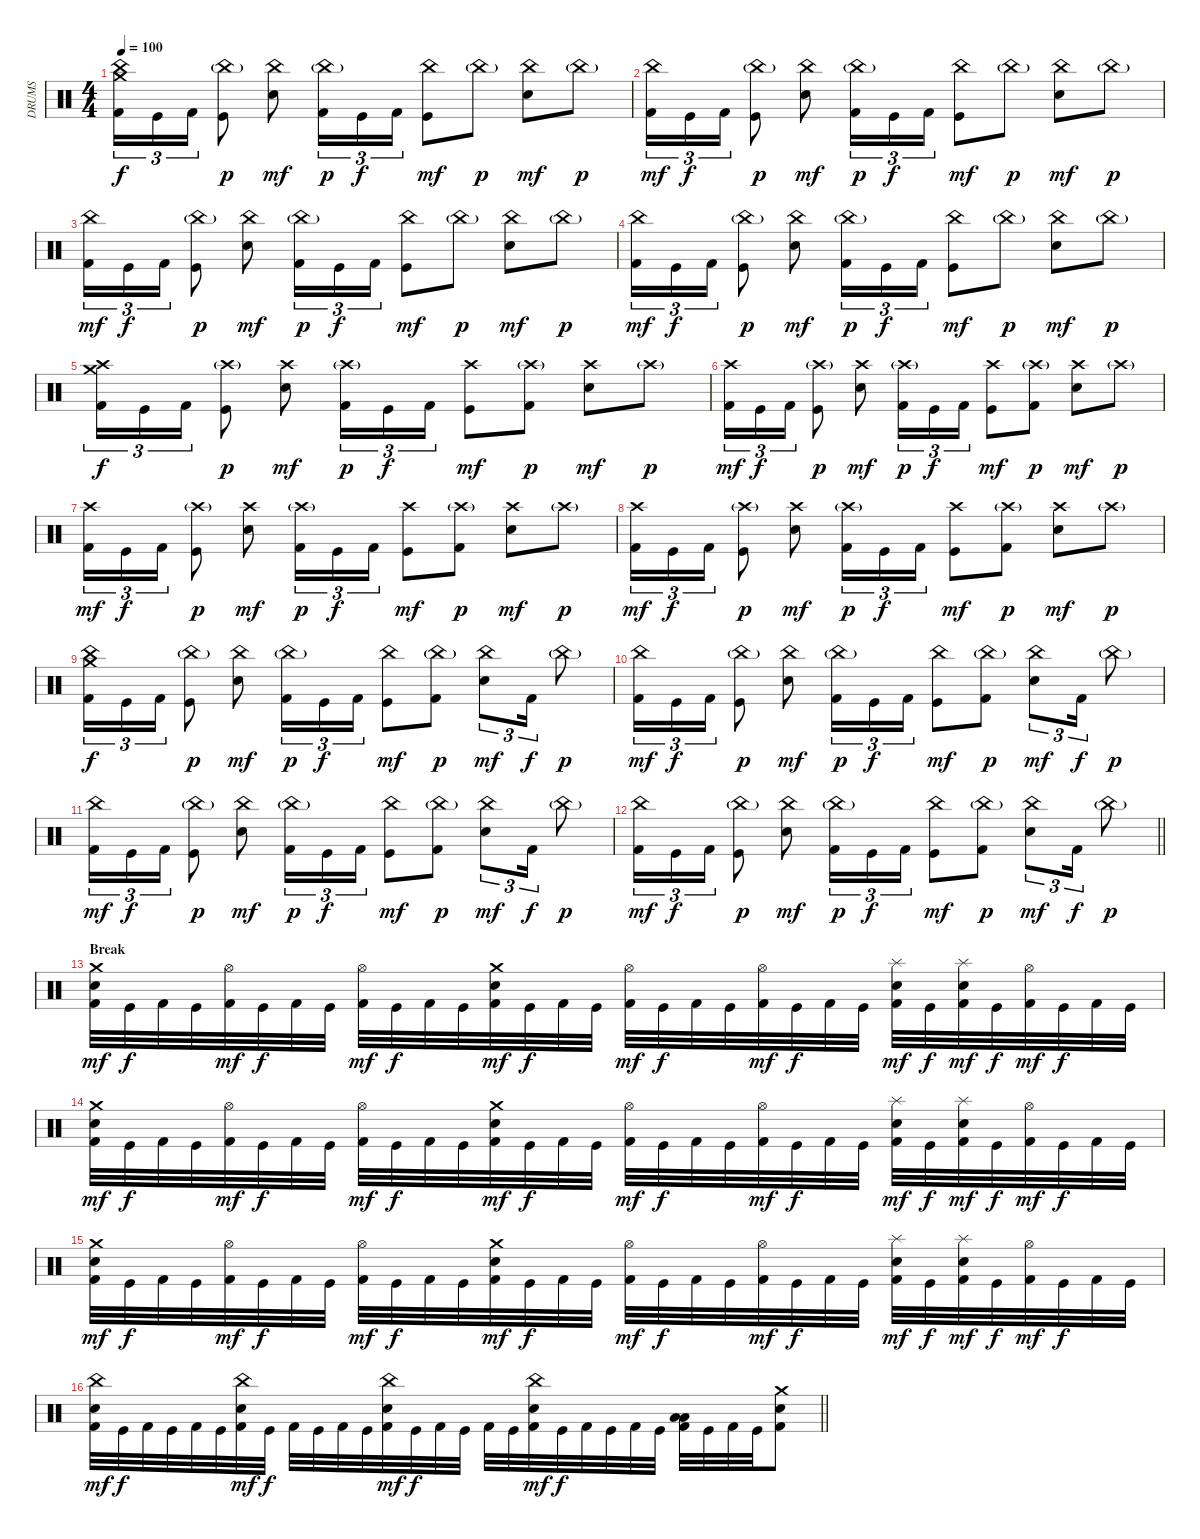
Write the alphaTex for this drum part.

\track ("DRUMS" "DRUMS") {instrument percussion}
\staff {score}
\articulation defaults
\ts (4 4)
\tempo 100
\clef neutral
\ks c
("China (hit)" "Crash medium (hit)" "Kick (hit) 2").16{tu (3 2) dy f} "Kick (hit)".16{tu (3 2)} "Kick (hit) 2".16{tu (3 2)} ("China (hit)"{g} "Kick (hit)").8{dy p} ("China (hit)" "Snare (hit) 2").8{dy mf} ("China (hit)"{g} "Kick (hit) 2").16{tu (3 2) dy p} "Kick (hit)".16{tu (3 2) dy f} "Kick (hit) 2".16{tu (3 2)} ("China (hit)" "Kick (hit)").8{dy mf} "China (hit)"{g}.8{dy p} ("China (hit)" "Snare (hit) 2").8{dy mf} "China (hit)"{g}.8{dy p} |
("China (hit)" "Kick (hit) 2").16{tu (3 2) dy mf} "Kick (hit)".16{tu (3 2) dy f} "Kick (hit) 2".16{tu (3 2)} ("China (hit)"{g} "Kick (hit)").8{dy p} ("China (hit)" "Snare (hit) 2").8{dy mf} ("China (hit)"{g} "Kick (hit) 2").16{tu (3 2) dy p} "Kick (hit)".16{tu (3 2) dy f} "Kick (hit) 2".16{tu (3 2)} ("China (hit)" "Kick (hit)").8{dy mf} "China (hit)"{g}.8{dy p} ("China (hit)" "Snare (hit) 2").8{dy mf} "China (hit)"{g}.8{dy p} |
("China (hit)" "Kick (hit) 2").16{tu (3 2) dy mf} "Kick (hit)".16{tu (3 2) dy f} "Kick (hit) 2".16{tu (3 2)} ("China (hit)"{g} "Kick (hit)").8{dy p} ("China (hit)" "Snare (hit) 2").8{dy mf} ("China (hit)"{g} "Kick (hit) 2").16{tu (3 2) dy p} "Kick (hit)".16{tu (3 2) dy f} "Kick (hit) 2".16{tu (3 2)} ("China (hit)" "Kick (hit)").8{dy mf} "China (hit)"{g}.8{dy p} ("China (hit)" "Snare (hit) 2").8{dy mf} "China (hit)"{g}.8{dy p} |
("China (hit)" "Kick (hit) 2").16{tu (3 2) dy mf} "Kick (hit)".16{tu (3 2) dy f} "Kick (hit) 2".16{tu (3 2)} ("China (hit)"{g} "Kick (hit)").8{dy p} ("China (hit)" "Snare (hit) 2").8{dy mf} ("China (hit)"{g} "Kick (hit) 2").16{tu (3 2) dy p} "Kick (hit)".16{tu (3 2) dy f} "Kick (hit) 2".16{tu (3 2)} ("China (hit)" "Kick (hit)").8{dy mf} "China (hit)"{g}.8{dy p} ("China (hit)" "Snare (hit) 2").8{dy mf} "China (hit)"{g}.8{dy p} |
("Crash high (hit)" "Crash medium (hit)" "Kick (hit) 2").16{tu (3 2) dy f} "Kick (hit)".16{tu (3 2)} "Kick (hit) 2".16{tu (3 2)} ("Crash high (hit)"{g} "Kick (hit)").8{dy p} ("Crash high (hit)" "Snare (hit) 2").8{dy mf} ("Crash high (hit)"{g} "Kick (hit) 2").16{tu (3 2) dy p} "Kick (hit)".16{tu (3 2) dy f} "Kick (hit) 2".16{tu (3 2)} ("Crash high (hit)" "Kick (hit)").8{dy mf} ("Crash high (hit)"{g} "Kick (hit) 2").8{dy p} ("Crash high (hit)" "Snare (hit) 2").8{dy mf} "Crash high (hit)"{g}.8{dy p} |
("Crash high (hit)" "Kick (hit) 2").16{tu (3 2) dy mf} "Kick (hit)".16{tu (3 2) dy f} "Kick (hit) 2".16{tu (3 2)} ("Crash high (hit)"{g} "Kick (hit)").8{dy p} ("Crash high (hit)" "Snare (hit) 2").8{dy mf} ("Crash high (hit)"{g} "Kick (hit) 2").16{tu (3 2) dy p} "Kick (hit)".16{tu (3 2) dy f} "Kick (hit) 2".16{tu (3 2)} ("Crash high (hit)" "Kick (hit)").8{dy mf} ("Crash high (hit)"{g} "Kick (hit) 2").8{dy p} ("Crash high (hit)" "Snare (hit) 2").8{dy mf} "Crash high (hit)"{g}.8{dy p} |
("Crash high (hit)" "Kick (hit) 2").16{tu (3 2) dy mf} "Kick (hit)".16{tu (3 2) dy f} "Kick (hit) 2".16{tu (3 2)} ("Crash high (hit)"{g} "Kick (hit)").8{dy p} ("Crash high (hit)" "Snare (hit) 2").8{dy mf} ("Crash high (hit)"{g} "Kick (hit) 2").16{tu (3 2) dy p} "Kick (hit)".16{tu (3 2) dy f} "Kick (hit) 2".16{tu (3 2)} ("Crash high (hit)" "Kick (hit)").8{dy mf} ("Crash high (hit)"{g} "Kick (hit) 2").8{dy p} ("Crash high (hit)" "Snare (hit) 2").8{dy mf} "Crash high (hit)"{g}.8{dy p} |
("Crash high (hit)" "Kick (hit) 2").16{tu (3 2) dy mf} "Kick (hit)".16{tu (3 2) dy f} "Kick (hit) 2".16{tu (3 2)} ("Crash high (hit)"{g} "Kick (hit)").8{dy p} ("Crash high (hit)" "Snare (hit) 2").8{dy mf} ("Crash high (hit)"{g} "Kick (hit) 2").16{tu (3 2) dy p} "Kick (hit)".16{tu (3 2) dy f} "Kick (hit) 2".16{tu (3 2)} ("Crash high (hit)" "Kick (hit)").8{dy mf} ("Crash high (hit)"{g} "Kick (hit) 2").8{dy p} ("Crash high (hit)" "Snare (hit) 2").8{dy mf} "Crash high (hit)"{g}.8{dy p} |
("China (hit)" "Crash medium (hit)" "Kick (hit) 2").16{tu (3 2) dy f} "Kick (hit)".16{tu (3 2)} "Kick (hit) 2".16{tu (3 2)} ("China (hit)"{g} "Kick (hit)").8{dy p} ("China (hit)" "Snare (hit) 2").8{dy mf} ("China (hit)"{g} "Kick (hit) 2").16{tu (3 2) dy p} "Kick (hit)".16{tu (3 2) dy f} "Kick (hit) 2".16{tu (3 2)} ("China (hit)" "Kick (hit)").8{dy mf} ("China (hit)"{g} "Kick (hit) 2").8{dy p} ("China (hit)" "Snare (hit) 2").8{tu (3 2) dy mf} "Kick (hit) 2".16{tu (3 2) dy f} "China (hit)"{g}.8{dy p} |
("China (hit)" "Kick (hit) 2").16{tu (3 2) dy mf} "Kick (hit)".16{tu (3 2) dy f} "Kick (hit) 2".16{tu (3 2)} ("China (hit)"{g} "Kick (hit)").8{dy p} ("China (hit)" "Snare (hit) 2").8{dy mf} ("China (hit)"{g} "Kick (hit) 2").16{tu (3 2) dy p} "Kick (hit)".16{tu (3 2) dy f} "Kick (hit) 2".16{tu (3 2)} ("China (hit)" "Kick (hit)").8{dy mf} ("China (hit)"{g} "Kick (hit) 2").8{dy p} ("China (hit)" "Snare (hit) 2").8{tu (3 2) dy mf} "Kick (hit) 2".16{tu (3 2) dy f} "China (hit)"{g}.8{dy p} |
("China (hit)" "Kick (hit) 2").16{tu (3 2) dy mf} "Kick (hit)".16{tu (3 2) dy f} "Kick (hit) 2".16{tu (3 2)} ("China (hit)"{g} "Kick (hit)").8{dy p} ("China (hit)" "Snare (hit) 2").8{dy mf} ("China (hit)"{g} "Kick (hit) 2").16{tu (3 2) dy p} "Kick (hit)".16{tu (3 2) dy f} "Kick (hit) 2".16{tu (3 2)} ("China (hit)" "Kick (hit)").8{dy mf} ("China (hit)"{g} "Kick (hit) 2").8{dy p} ("China (hit)" "Snare (hit) 2").8{tu (3 2) dy mf} "Kick (hit) 2".16{tu (3 2) dy f} "China (hit)"{g}.8{dy p} |
\barLineRight lightlight
("China (hit)" "Kick (hit) 2").16{tu (3 2) dy mf} "Kick (hit)".16{tu (3 2) dy f} "Kick (hit) 2".16{tu (3 2)} ("China (hit)"{g} "Kick (hit)").8{dy p} ("China (hit)" "Snare (hit) 2").8{dy mf} ("China (hit)"{g} "Kick (hit) 2").16{tu (3 2) dy p} "Kick (hit)".16{tu (3 2) dy f} "Kick (hit) 2".16{tu (3 2)} ("China (hit)" "Kick (hit)").8{dy mf} ("China (hit)"{g} "Kick (hit) 2").8{dy p} ("China (hit)" "Snare (hit) 2").8{tu (3 2) dy mf} "Kick (hit) 2".16{tu (3 2) dy f} "China (hit)"{g}.8{dy p} |
\section ("" "Break")
("Crash medium (hit)" "Snare (hit) 2" "Kick (hit) 2").32{dy mf} "Kick (hit)".32{dy f} "Kick (hit) 2".32 "Kick (hit)".32 ("Hi-Hat (open)" "Kick (hit) 2").32{dy mf} "Kick (hit)".32{dy f} "Kick (hit) 2".32 "Kick (hit)".32 ("Hi-Hat (open)" "Kick (hit) 2").32{dy mf} "Kick (hit)".32{dy f} "Kick (hit) 2".32 "Kick (hit)".32 ("Crash medium (hit)" "Snare (hit) 2" "Kick (hit) 2").32{dy mf} "Kick (hit)".32{dy f} "Kick (hit) 2".32 "Kick (hit)".32 ("Hi-Hat (open)" "Kick (hit) 2").32{dy mf} "Kick (hit)".32{dy f} "Kick (hit) 2".32 "Kick (hit)".32 ("Hi-Hat (open)" "Kick (hit) 2").32{dy mf} "Kick (hit)".32{dy f} "Kick (hit) 2".32 "Kick (hit)".32 ("Splash (hit)" "Snare (hit) 2" "Kick (hit) 2").32{dy mf} "Kick (hit)".32{dy f} ("Splash (hit)" "Snare (hit) 2" "Kick (hit) 2").32{dy mf} "Kick (hit)".32{dy f} ("Hi-Hat (open)" "Kick (hit) 2").32{dy mf} "Kick (hit)".32{dy f} "Kick (hit) 2".32 "Kick (hit)".32 |
("Crash medium (hit)" "Snare (hit) 2" "Kick (hit) 2").32{dy mf} "Kick (hit)".32{dy f} "Kick (hit) 2".32 "Kick (hit)".32 ("Hi-Hat (open)" "Kick (hit) 2").32{dy mf} "Kick (hit)".32{dy f} "Kick (hit) 2".32 "Kick (hit)".32 ("Hi-Hat (open)" "Kick (hit) 2").32{dy mf} "Kick (hit)".32{dy f} "Kick (hit) 2".32 "Kick (hit)".32 ("Crash medium (hit)" "Snare (hit) 2" "Kick (hit) 2").32{dy mf} "Kick (hit)".32{dy f} "Kick (hit) 2".32 "Kick (hit)".32 ("Hi-Hat (open)" "Kick (hit) 2").32{dy mf} "Kick (hit)".32{dy f} "Kick (hit) 2".32 "Kick (hit)".32 ("Hi-Hat (open)" "Kick (hit) 2").32{dy mf} "Kick (hit)".32{dy f} "Kick (hit) 2".32 "Kick (hit)".32 ("Splash (hit)" "Snare (hit) 2" "Kick (hit) 2").32{dy mf} "Kick (hit)".32{dy f} ("Splash (hit)" "Snare (hit) 2" "Kick (hit) 2").32{dy mf} "Kick (hit)".32{dy f} ("Hi-Hat (open)" "Kick (hit) 2").32{dy mf} "Kick (hit)".32{dy f} "Kick (hit) 2".32 "Kick (hit)".32 |
("Crash medium (hit)" "Snare (hit) 2" "Kick (hit) 2").32{dy mf} "Kick (hit)".32{dy f} "Kick (hit) 2".32 "Kick (hit)".32 ("Hi-Hat (open)" "Kick (hit) 2").32{dy mf} "Kick (hit)".32{dy f} "Kick (hit) 2".32 "Kick (hit)".32 ("Hi-Hat (open)" "Kick (hit) 2").32{dy mf} "Kick (hit)".32{dy f} "Kick (hit) 2".32 "Kick (hit)".32 ("Crash medium (hit)" "Snare (hit) 2" "Kick (hit) 2").32{dy mf} "Kick (hit)".32{dy f} "Kick (hit) 2".32 "Kick (hit)".32 ("Hi-Hat (open)" "Kick (hit) 2").32{dy mf} "Kick (hit)".32{dy f} "Kick (hit) 2".32 "Kick (hit)".32 ("Hi-Hat (open)" "Kick (hit) 2").32{dy mf} "Kick (hit)".32{dy f} "Kick (hit) 2".32 "Kick (hit)".32 ("Splash (hit)" "Snare (hit) 2" "Kick (hit) 2").32{dy mf} "Kick (hit)".32{dy f} ("Splash (hit)" "Snare (hit) 2" "Kick (hit) 2").32{dy mf} "Kick (hit)".32{dy f} ("Hi-Hat (open)" "Kick (hit) 2").32{dy mf} "Kick (hit)".32{dy f} "Kick (hit) 2".32 "Kick (hit)".32 |
\barLineRight lightlight
("China (hit)" "Snare (hit) 2" "Kick (hit) 2").32{dy mf} "Kick (hit)".32{dy f} "Kick (hit) 2".32 "Kick (hit)".32 "Kick (hit) 2".32 "Kick (hit)".32 ("China (hit)" "Snare (hit) 2" "Kick (hit) 2").32{dy mf} "Kick (hit)".32{dy f} "Kick (hit) 2".32 "Kick (hit)".32 "Kick (hit) 2".32 "Kick (hit)".32 ("China (hit)" "Snare (hit) 2" "Kick (hit) 2").32{dy mf} "Kick (hit)".32{dy f} "Kick (hit) 2".32 "Kick (hit)".32 "Kick (hit) 2".32 "Kick (hit)".32 ("China (hit)" "Snare (hit) 2" "Kick (hit) 2").32{dy mf} "Kick (hit)".32{dy f} "Kick (hit) 2".32 "Kick (hit)".32 "Kick (hit) 2".32 "Kick (hit)".32 ("Low Tom (hit)" "Low Floor Tom (hit)" "Kick (hit) 2").32 "Kick (hit)".32 "Kick (hit) 2".32 "Kick (hit)".32 ("Crash medium (hit)" "Snare (hit) 2" "Kick (hit) 2").8
